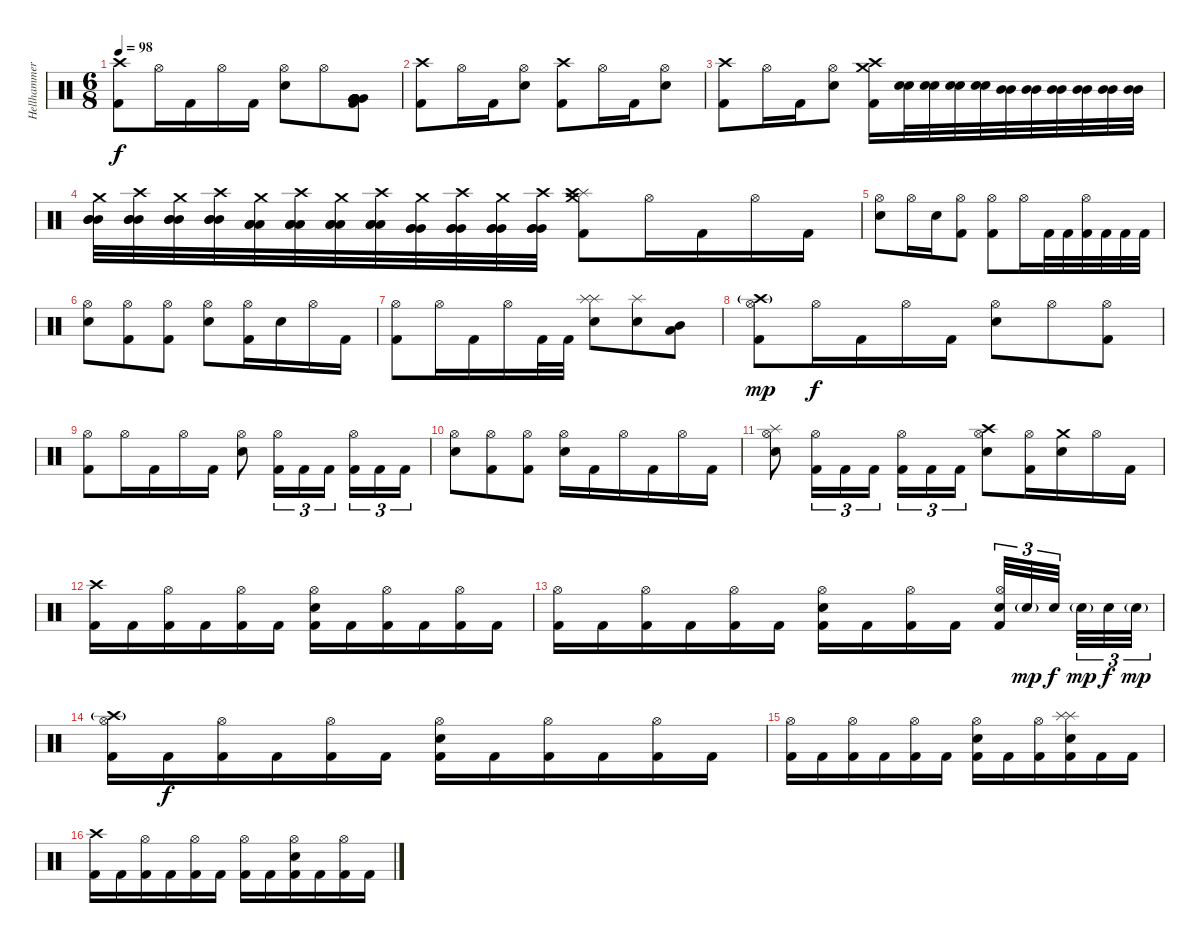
\track ("Hellhammer (Drums)" "Hellhammer") {instrument percussion}
\staff {score}
\articulation defaults
\ts (6 8)
\tempo 98
\clef neutral
\ks c
("Kick (hit) 2" "Crash high (hit)").8{dy f} "Hi-Hat (open)".16 "Kick (hit) 2".16 "Hi-Hat (open)".16 "Kick (hit) 2".16 ("Electric Snare (hit)" "Hi-Hat (open)").8 "Hi-Hat (open)".8 ("Kick (hit) 2" "Very Low Tom (hit)" "Very Low Tom (hit)" "Very Low Tom (hit)" "Very Low Tom (hit)" "Very Low Tom (hit)").8 |
("Kick (hit) 2" "Crash high (hit)").8 "Hi-Hat (open)".16 "Kick (hit) 2".16 ("Electric Snare (hit)" "Hi-Hat (open)").8 ("Kick (hit) 2" "Crash high (hit)").8 "Hi-Hat (open)".16 "Kick (hit) 2".16 ("Electric Snare (hit)" "Hi-Hat (open)").8 |
("Kick (hit) 2" "Crash high (hit)").8 "Hi-Hat (open)".16 "Kick (hit) 2".16 ("Electric Snare (hit)" "Hi-Hat (open)").8 ("Kick (hit) 2" "Crash medium (hit)" "Crash high (hit)").16 ("Electric Snare (hit)" "Electric Snare (hit)").32 ("Electric Snare (hit)" "Electric Snare (hit)").32 ("Electric Snare (hit)" "Electric Snare (hit)").32 ("Electric Snare (hit)" "Electric Snare (hit)").32 ("Mid Tom (hit)" "Mid Tom (hit)").32 ("Mid Tom (hit)" "Mid Tom (hit)").32 ("Mid Tom (hit)" "Mid Tom (hit)").32 ("Mid Tom (hit)" "Mid Tom (hit)").32 ("Mid Tom (hit)" "Mid Tom (hit)").32 ("Mid Tom (hit)" "Mid Tom (hit)").32 |
("Mid Tom (hit)" "Mid Tom (hit)" "Mid Tom (hit)" "Crash medium (hit)").32 ("Mid Tom (hit)" "Mid Tom (hit)" "Mid Tom (hit)" "Crash high (hit)").32 ("Mid Tom (hit)" "Mid Tom (hit)" "Mid Tom (hit)" "Crash medium (hit)").32 ("Mid Tom (hit)" "Mid Tom (hit)" "Mid Tom (hit)" "Crash high (hit)").32 ("Low Tom (hit)" "Low Tom (hit)" "Low Tom (hit)" "Crash medium (hit)").32 ("Low Tom (hit)" "Low Tom (hit)" "Low Tom (hit)" "Crash high (hit)").32 ("Low Tom (hit)" "Low Tom (hit)" "Low Tom (hit)" "Crash medium (hit)").32 ("Low Tom (hit)" "Low Tom (hit)" "Low Tom (hit)" "Crash high (hit)").32 ("Very Low Tom (hit)" "Very Low Tom (hit)" "Very Low Tom (hit)" "Crash medium (hit)").32 ("Very Low Tom (hit)" "Very Low Tom (hit)" "Very Low Tom (hit)" "Crash high (hit)").32 ("Very Low Tom (hit)" "Very Low Tom (hit)" "Very Low Tom (hit)" "Crash medium (hit)").32 ("Very Low Tom (hit)" "Very Low Tom (hit)" "Very Low Tom (hit)" "Crash high (hit)").32 ("Kick (hit) 2" "Splash (hit)" "Crash medium (hit)" "Crash high (hit)").8 "Hi-Hat (open)".16 "Kick (hit) 2".16 "Hi-Hat (open)".16 "Kick (hit) 2".16 |
("Electric Snare (hit)" "Hi-Hat (open)").8 "Hi-Hat (open)".16 "Electric Snare (hit)".16 ("Kick (hit) 2" "Hi-Hat (open)").8 ("Kick (hit) 2" "Hi-Hat (open)").8 "Hi-Hat (open)".16 "Kick (hit) 2".32 "Kick (hit) 2".32 ("Kick (hit) 2" "Hi-Hat (open)").32 "Kick (hit) 2".32 "Kick (hit) 2".32 "Kick (hit) 2".32 |
("Electric Snare (hit)" "Hi-Hat (open)").8 ("Kick (hit) 2" "Hi-Hat (open)").8 ("Kick (hit) 2" "Hi-Hat (open)").8 ("Electric Snare (hit)" "Hi-Hat (open)").8 ("Kick (hit) 2" "Hi-Hat (open)").16 "Electric Snare (hit)".16 "Hi-Hat (open)".16 "Kick (hit) 2".16 |
("Kick (hit) 2" "Hi-Hat (open)").8 "Hi-Hat (open)".16 "Kick (hit) 2".16 "Hi-Hat (open)".16 "Kick (hit) 2".32 "Kick (hit) 2".32 ("Electric Snare (hit)" "Splash (hit)" "Splash (hit)").8 ("Electric Snare (hit)" "Splash (hit)").8 ("Mid Tom (hit)" "Low Tom (hit)").8 |
("Kick (hit) 2" "Hi-Hat (open)" "Crash high (hit)"{g}).8{dy mp} "Hi-Hat (open)".16{dy f} "Kick (hit) 2".16 "Hi-Hat (open)".16 "Kick (hit) 2".16 ("Electric Snare (hit)" "Hi-Hat (open)").8 "Hi-Hat (open)".8 ("Kick (hit) 2" "Hi-Hat (open)").8 |
("Kick (hit) 2" "Hi-Hat (open)").8 "Hi-Hat (open)".16 "Kick (hit) 2".16 "Hi-Hat (open)".16 "Kick (hit) 2".16 ("Electric Snare (hit)" "Hi-Hat (open)").8 ("Kick (hit) 2" "Hi-Hat (open)").16{tu (3 2)} "Kick (hit) 2".16{tu (3 2)} "Kick (hit) 2".16{tu (3 2)} ("Kick (hit) 2" "Hi-Hat (open)").16{tu (3 2)} "Kick (hit) 2".16{tu (3 2)} "Kick (hit) 2".16{tu (3 2)} |
("Electric Snare (hit)" "Hi-Hat (open)").8 ("Kick (hit) 2" "Hi-Hat (open)").8 ("Kick (hit) 2" "Hi-Hat (open)").8 ("Electric Snare (hit)" "Hi-Hat (open)").16 "Kick (hit) 2".16 "Hi-Hat (open)".16 "Kick (hit) 2".16 "Hi-Hat (open)".16 "Kick (hit) 2".16 |
("Electric Snare (hit)" "Hi-Hat (open)" "Splash (hit)").8 ("Kick (hit) 2" "Hi-Hat (open)").16{tu (3 2)} "Kick (hit) 2".16{tu (3 2)} "Kick (hit) 2".16{tu (3 2)} ("Kick (hit) 2" "Hi-Hat (open)").16{tu (3 2)} "Kick (hit) 2".16{tu (3 2)} "Kick (hit) 2".16{tu (3 2)} ("Electric Snare (hit)" "Hi-Hat (open)" "Crash high (hit)").8 ("Kick (hit) 2" "Hi-Hat (open)").16 ("Electric Snare (hit)" "Crash medium (hit)").16 "Hi-Hat (open)".16 "Kick (hit) 2".16 |
("Kick (hit) 2" "Crash high (hit)").16 "Kick (hit) 2".16 ("Kick (hit) 2" "Hi-Hat (open)").16 "Kick (hit) 2".16 ("Kick (hit) 2" "Hi-Hat (open)").16 "Kick (hit) 2".16 ("Kick (hit) 2" "Electric Snare (hit)" "Hi-Hat (open)").16 "Kick (hit) 2".16 ("Kick (hit) 2" "Hi-Hat (open)").16 "Kick (hit) 2".16 ("Kick (hit) 2" "Hi-Hat (open)").16 "Kick (hit) 2".16 |
("Kick (hit) 2" "Hi-Hat (open)").16 "Kick (hit) 2".16 ("Kick (hit) 2" "Hi-Hat (open)").16 "Kick (hit) 2".16 ("Kick (hit) 2" "Hi-Hat (open)").16 "Kick (hit) 2".16 ("Kick (hit) 2" "Electric Snare (hit)" "Hi-Hat (open)").16 "Kick (hit) 2".16 ("Kick (hit) 2" "Hi-Hat (open)").16 "Kick (hit) 2".16 ("Kick (hit) 2" "Electric Snare (hit)" "Hi-Hat (open)").32{tu (3 2)} "Electric Snare (hit)"{g}.32{tu (3 2) dy mp} "Electric Snare (hit)".32{tu (3 2) dy f} "Electric Snare (hit)"{g}.32{tu (3 2) dy mp} "Electric Snare (hit)".32{tu (3 2) dy f} "Electric Snare (hit)"{g}.32{tu (3 2) dy mp} |
("Kick (hit) 2" "Hi-Hat (open)" "Crash high (hit)"{g}).16 "Kick (hit) 2".16{dy f} ("Kick (hit) 2" "Hi-Hat (open)").16 "Kick (hit) 2".16 ("Kick (hit) 2" "Hi-Hat (open)").16 "Kick (hit) 2".16 ("Kick (hit) 2" "Electric Snare (hit)" "Hi-Hat (open)").16 "Kick (hit) 2".16 ("Kick (hit) 2" "Hi-Hat (open)").16 "Kick (hit) 2".16 ("Kick (hit) 2" "Hi-Hat (open)").16 "Kick (hit) 2".16 |
("Kick (hit) 2" "Hi-Hat (open)").16 "Kick (hit) 2".16 ("Kick (hit) 2" "Hi-Hat (open)").16 "Kick (hit) 2".16 ("Kick (hit) 2" "Hi-Hat (open)").16 "Kick (hit) 2".16 ("Kick (hit) 2" "Electric Snare (hit)" "Hi-Hat (open)").16 "Kick (hit) 2".16 ("Kick (hit) 2" "Hi-Hat (open)").16 ("Kick (hit) 2" "Electric Snare (hit)" "Splash (hit)" "Splash (hit)").16 "Kick (hit) 2".16 "Kick (hit) 2".16 |
("Kick (hit) 2" "Crash high (hit)").16 "Kick (hit) 2".16 ("Kick (hit) 2" "Hi-Hat (open)").16 "Kick (hit) 2".16 ("Kick (hit) 2" "Hi-Hat (open)").16 "Kick (hit) 2".16 ("Kick (hit) 2" "Hi-Hat (open)").16 "Kick (hit) 2".16 ("Kick (hit) 2" "Electric Snare (hit)" "Hi-Hat (open)").16 "Kick (hit) 2".16 ("Kick (hit) 2" "Hi-Hat (open)").16 "Kick (hit) 2".16
